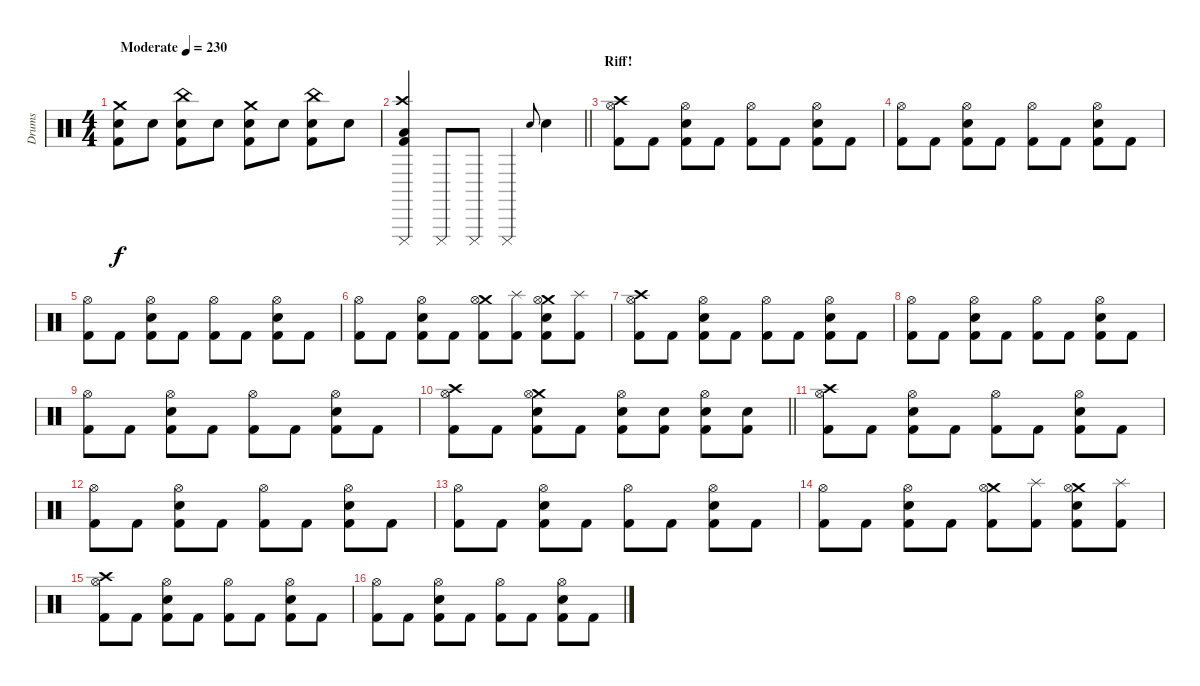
\track ("Drums" "Drums") {instrument percussion}
\staff {score}
\articulation defaults
\ts (4 4)
\tempo (230 "Moderate")
\clef neutral
\ks c
("Crash medium (hit)" "Snare (hit) 2" "Kick (hit) 2").8{dy f} "Snare (hit) 2".8 ("China (hit)" "Snare (hit) 2" "Kick (hit) 2").8 "Snare (hit) 2".8 ("Crash medium (hit)" "Snare (hit) 2" "Kick (hit) 2").8 "Snare (hit) 2".8 ("China (hit)" "Snare (hit) 2" "Kick (hit) 2").8 "Snare (hit) 2".8 |
\barLineRight lightlight
("Crash high (hit)" "Cuica (mute)" "Low Floor Tom (hit)" "Kick (hit) 2").4 "Cuica (mute)".8 "Cuica (mute)".8 "Cuica (mute)".4 "Snare (hit) 2".8{gr onbeat} "Snare (hit) 2".4 |
\section ("" "Riff!")
("Crash high (hit)" "Hi-Hat (open)" "Kick (hit) 2").8 "Kick (hit) 2".8 ("Hi-Hat (open)" "Snare (hit) 2" "Kick (hit) 2").8 "Kick (hit) 2".8 ("Hi-Hat (open)" "Kick (hit) 2").8 "Kick (hit) 2".8 ("Hi-Hat (open)" "Snare (hit) 2" "Kick (hit) 2").8 "Kick (hit) 2".8 |
("Hi-Hat (open)" "Kick (hit) 2").8 "Kick (hit) 2".8 ("Hi-Hat (open)" "Snare (hit) 2" "Kick (hit) 2").8 "Kick (hit) 2".8 ("Hi-Hat (open)" "Kick (hit) 2").8 "Kick (hit) 2".8 ("Hi-Hat (open)" "Snare (hit) 2" "Kick (hit) 2").8 "Kick (hit) 2".8 |
("Hi-Hat (open)" "Kick (hit) 2").8 "Kick (hit) 2".8 ("Hi-Hat (open)" "Snare (hit) 2" "Kick (hit) 2").8 "Kick (hit) 2".8 ("Hi-Hat (open)" "Kick (hit) 2").8 "Kick (hit) 2".8 ("Hi-Hat (open)" "Snare (hit) 2" "Kick (hit) 2").8 "Kick (hit) 2".8 |
("Hi-Hat (open)" "Kick (hit) 2").8 "Kick (hit) 2".8 ("Hi-Hat (open)" "Snare (hit) 2" "Kick (hit) 2").8 "Kick (hit) 2".8 ("Crash medium (hit)" "Hi-Hat (open)" "Kick (hit) 2").8 ("Splash (hit)" "Kick (hit) 2").8 ("Crash medium (hit)" "Hi-Hat (open)" "Snare (hit) 2" "Kick (hit) 2").8 ("Splash (hit)" "Kick (hit) 2").8 |
("Crash high (hit)" "Hi-Hat (open)" "Kick (hit) 2").8 "Kick (hit) 2".8 ("Hi-Hat (open)" "Snare (hit) 2" "Kick (hit) 2").8 "Kick (hit) 2".8 ("Hi-Hat (open)" "Kick (hit) 2").8 "Kick (hit) 2".8 ("Hi-Hat (open)" "Snare (hit) 2" "Kick (hit) 2").8 "Kick (hit) 2".8 |
("Hi-Hat (open)" "Kick (hit) 2").8 "Kick (hit) 2".8 ("Hi-Hat (open)" "Snare (hit) 2" "Kick (hit) 2").8 "Kick (hit) 2".8 ("Hi-Hat (open)" "Kick (hit) 2").8 "Kick (hit) 2".8 ("Hi-Hat (open)" "Snare (hit) 2" "Kick (hit) 2").8 "Kick (hit) 2".8 |
("Hi-Hat (open)" "Kick (hit) 2").8 "Kick (hit) 2".8 ("Hi-Hat (open)" "Snare (hit) 2" "Kick (hit) 2").8 "Kick (hit) 2".8 ("Hi-Hat (open)" "Kick (hit) 2").8 "Kick (hit) 2".8 ("Hi-Hat (open)" "Snare (hit) 2" "Kick (hit) 2").8 "Kick (hit) 2".8 |
\barLineRight lightlight
("Crash high (hit)" "Hi-Hat (open)" "Kick (hit) 2").8 "Kick (hit) 2".8 ("Crash medium (hit)" "Hi-Hat (open)" "Snare (hit) 2" "Kick (hit) 2").8 "Kick (hit) 2".8 ("Hi-Hat (open)" "Snare (hit) 2" "Kick (hit) 2").8 ("Snare (hit) 2" "Kick (hit) 2").8 ("Hi-Hat (open)" "Snare (hit) 2" "Kick (hit) 2").8 ("Snare (hit) 2" "Kick (hit) 2").8 |
("Crash high (hit)" "Hi-Hat (open)" "Kick (hit) 2").8 "Kick (hit) 2".8 ("Hi-Hat (open)" "Snare (hit) 2" "Kick (hit) 2").8 "Kick (hit) 2".8 ("Hi-Hat (open)" "Kick (hit) 2").8 "Kick (hit) 2".8 ("Hi-Hat (open)" "Snare (hit) 2" "Kick (hit) 2").8 "Kick (hit) 2".8 |
("Hi-Hat (open)" "Kick (hit) 2").8 "Kick (hit) 2".8 ("Hi-Hat (open)" "Snare (hit) 2" "Kick (hit) 2").8 "Kick (hit) 2".8 ("Hi-Hat (open)" "Kick (hit) 2").8 "Kick (hit) 2".8 ("Hi-Hat (open)" "Snare (hit) 2" "Kick (hit) 2").8 "Kick (hit) 2".8 |
("Hi-Hat (open)" "Kick (hit) 2").8 "Kick (hit) 2".8 ("Hi-Hat (open)" "Snare (hit) 2" "Kick (hit) 2").8 "Kick (hit) 2".8 ("Hi-Hat (open)" "Kick (hit) 2").8 "Kick (hit) 2".8 ("Hi-Hat (open)" "Snare (hit) 2" "Kick (hit) 2").8 "Kick (hit) 2".8 |
("Hi-Hat (open)" "Kick (hit) 2").8 "Kick (hit) 2".8 ("Hi-Hat (open)" "Snare (hit) 2" "Kick (hit) 2").8 "Kick (hit) 2".8 ("Crash medium (hit)" "Hi-Hat (open)" "Kick (hit) 2").8 ("Splash (hit)" "Kick (hit) 2").8 ("Crash medium (hit)" "Hi-Hat (open)" "Snare (hit) 2" "Kick (hit) 2").8 ("Splash (hit)" "Kick (hit) 2").8 |
("Crash high (hit)" "Hi-Hat (open)" "Kick (hit) 2").8 "Kick (hit) 2".8 ("Hi-Hat (open)" "Snare (hit) 2" "Kick (hit) 2").8 "Kick (hit) 2".8 ("Hi-Hat (open)" "Kick (hit) 2").8 "Kick (hit) 2".8 ("Hi-Hat (open)" "Snare (hit) 2" "Kick (hit) 2").8 "Kick (hit) 2".8 |
("Hi-Hat (open)" "Kick (hit) 2").8 "Kick (hit) 2".8 ("Hi-Hat (open)" "Snare (hit) 2" "Kick (hit) 2").8 "Kick (hit) 2".8 ("Hi-Hat (open)" "Kick (hit) 2").8 "Kick (hit) 2".8 ("Hi-Hat (open)" "Snare (hit) 2" "Kick (hit) 2").8 "Kick (hit) 2".8
